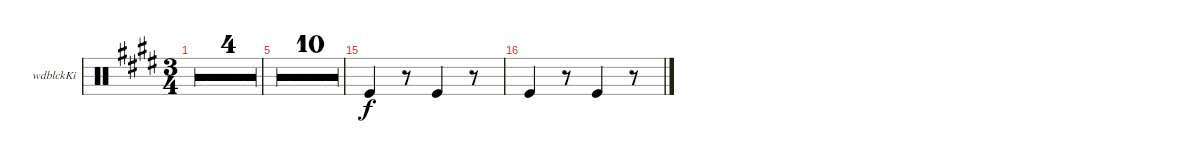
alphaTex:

\defaultSystemsLayout 4
\bracketExtendMode groupsimilarinstruments
\firstSystemTrackNameOrientation horizontal
\otherSystemsTrackNameOrientation horizontal
\track ("Woodblock" "wdblckKi") {multiBarRest instrument percussion}
\staff {score}
\articulation defaults
\ts (3 4)
\tempo
150.035
\accidentals auto
\clef neutral
\ottava regular
\simile none
\ks e
r.2{d dy f} |
r.2{d} |
r.2{d} |
r.2{d} |
\tempo
165.176 r.2{d} |
r.2{d} |
r.2{d} |
r.2{d} |
r.2{d} |
r.2{d} |
r.2{d} |
r.2{d} |
r.2{d} |
r.2{d} |
"Kick (hit)".4 r.8 "Kick (hit)".4 r.8 |
"Kick (hit)".4 r.8 "Kick (hit)".4 r.8
